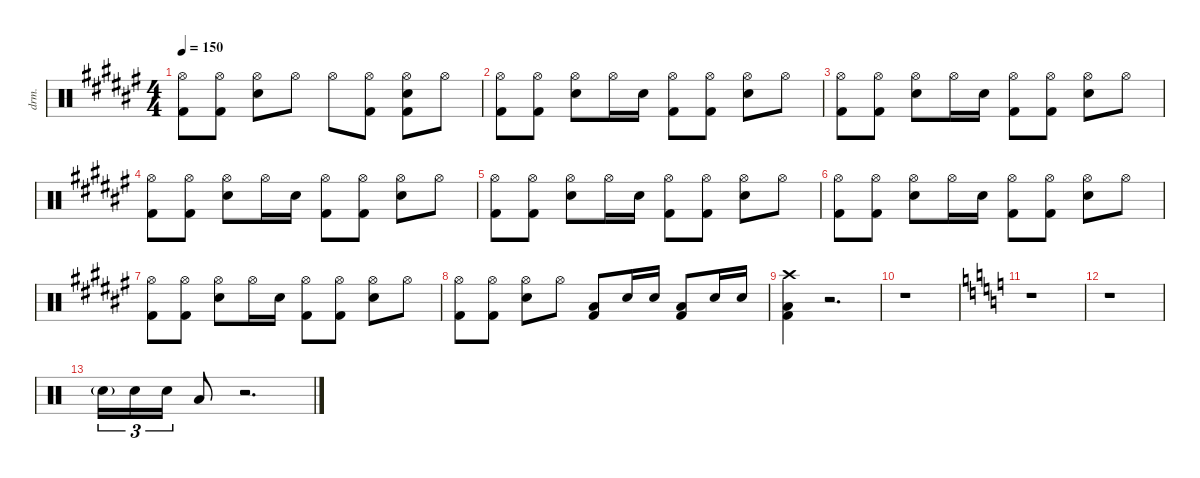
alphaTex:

\defaultSystemsLayout 4
\hideDynamics
\bracketExtendMode nobrackets
\track (" (Drums)" "drm.") {instrument percussion}
\staff {score}
\articulation defaults
\ts (4 4)
\tempo 150
\clef neutral
\ks d#minor
("Hi-Hat (open)"{acc forcenatural} "Kick (hit) 2"{acc forcenatural}).8{dy f} ("Hi-Hat (open)"{acc forcenatural} "Kick (hit) 2"{acc forcenatural}).8 ("Hi-Hat (open)"{acc forcenatural} "Snare (hit) 2"{acc forcenatural}).8 "Hi-Hat (open)"{acc forcenatural}.8 "Hi-Hat (open)"{acc forcenatural}.8 ("Hi-Hat (open)"{acc forcenatural} "Kick (hit) 2"{acc forcenatural}).8 ("Hi-Hat (open)"{acc forcenatural} "Snare (hit) 2"{acc forcenatural} "Kick (hit) 2"{acc forcenatural}).8 "Hi-Hat (open)"{acc forcenatural}.8 |
("Hi-Hat (open)"{acc forcenatural} "Kick (hit) 2"{acc forcenatural}).8 ("Hi-Hat (open)"{acc forcenatural} "Kick (hit) 2"{acc forcenatural}).8 ("Hi-Hat (open)"{acc forcenatural} "Snare (hit) 2"{acc forcenatural}).8 "Hi-Hat (open)"{acc forcenatural}.16 "Snare (hit) 2"{acc forcenatural}.16{dy mf} ("Hi-Hat (open)"{acc forcenatural} "Kick (hit) 2"{acc forcenatural}).8{dy f} ("Hi-Hat (open)"{acc forcenatural} "Kick (hit) 2"{acc forcenatural}).8 ("Hi-Hat (open)"{acc forcenatural} "Snare (hit) 2"{acc forcenatural}).8 "Hi-Hat (open)"{acc forcenatural}.8 |
("Hi-Hat (open)"{acc forcenatural} "Kick (hit) 2"{acc forcenatural}).8 ("Hi-Hat (open)"{acc forcenatural} "Kick (hit) 2"{acc forcenatural}).8 ("Hi-Hat (open)"{acc forcenatural} "Snare (hit) 2"{acc forcenatural}).8 "Hi-Hat (open)"{acc forcenatural}.16 "Snare (hit) 2"{acc forcenatural}.16{dy mf} ("Hi-Hat (open)"{acc forcenatural} "Kick (hit) 2"{acc forcenatural}).8{dy f} ("Hi-Hat (open)"{acc forcenatural} "Kick (hit) 2"{acc forcenatural}).8 ("Hi-Hat (open)"{acc forcenatural} "Snare (hit) 2"{acc forcenatural}).8 "Hi-Hat (open)"{acc forcenatural}.8 |
("Hi-Hat (open)"{acc forcenatural} "Kick (hit) 2"{acc forcenatural}).8 ("Hi-Hat (open)"{acc forcenatural} "Kick (hit) 2"{acc forcenatural}).8 ("Hi-Hat (open)"{acc forcenatural} "Snare (hit) 2"{acc forcenatural}).8 "Hi-Hat (open)"{acc forcenatural}.16 "Snare (hit) 2"{acc forcenatural}.16{dy mf} ("Hi-Hat (open)"{acc forcenatural} "Kick (hit) 2"{acc forcenatural}).8{dy f} ("Hi-Hat (open)"{acc forcenatural} "Kick (hit) 2"{acc forcenatural}).8 ("Hi-Hat (open)"{acc forcenatural} "Snare (hit) 2"{acc forcenatural}).8 "Hi-Hat (open)"{acc forcenatural}.8 |
("Hi-Hat (open)"{acc forcenatural} "Kick (hit) 2"{acc forcenatural}).8 ("Hi-Hat (open)"{acc forcenatural} "Kick (hit) 2"{acc forcenatural}).8 ("Hi-Hat (open)"{acc forcenatural} "Snare (hit) 2"{acc forcenatural}).8 "Hi-Hat (open)"{acc forcenatural}.16 "Snare (hit) 2"{acc forcenatural}.16{dy mf} ("Hi-Hat (open)"{acc forcenatural} "Kick (hit) 2"{acc forcenatural}).8{dy f} ("Hi-Hat (open)"{acc forcenatural} "Kick (hit) 2"{acc forcenatural}).8 ("Hi-Hat (open)"{acc forcenatural} "Snare (hit) 2"{acc forcenatural}).8 "Hi-Hat (open)"{acc forcenatural}.8 |
("Hi-Hat (open)"{acc forcenatural} "Kick (hit) 2"{acc forcenatural}).8 ("Hi-Hat (open)"{acc forcenatural} "Kick (hit) 2"{acc forcenatural}).8 ("Hi-Hat (open)"{acc forcenatural} "Snare (hit) 2"{acc forcenatural}).8 "Hi-Hat (open)"{acc forcenatural}.16 "Snare (hit) 2"{acc forcenatural}.16{dy mf} ("Hi-Hat (open)"{acc forcenatural} "Kick (hit) 2"{acc forcenatural}).8{dy f} ("Hi-Hat (open)"{acc forcenatural} "Kick (hit) 2"{acc forcenatural}).8 ("Hi-Hat (open)"{acc forcenatural} "Snare (hit) 2"{acc forcenatural}).8 "Hi-Hat (open)"{acc forcenatural}.8 |
("Hi-Hat (open)"{acc forcenatural} "Kick (hit) 2"{acc forcenatural}).8 ("Hi-Hat (open)"{acc forcenatural} "Kick (hit) 2"{acc forcenatural}).8 ("Hi-Hat (open)"{acc forcenatural} "Snare (hit) 2"{acc forcenatural}).8 "Hi-Hat (open)"{acc forcenatural}.16 "Snare (hit) 2"{acc forcenatural}.16{dy mf} ("Hi-Hat (open)"{acc forcenatural} "Kick (hit) 2"{acc forcenatural}).8{dy f} ("Hi-Hat (open)"{acc forcenatural} "Kick (hit) 2"{acc forcenatural}).8 ("Hi-Hat (open)"{acc forcenatural} "Snare (hit) 2"{acc forcenatural}).8 "Hi-Hat (open)"{acc forcenatural}.8 |
("Hi-Hat (open)"{acc forcenatural} "Kick (hit) 2"{acc forcenatural}).8 ("Hi-Hat (open)"{acc forcenatural} "Kick (hit) 2"{acc forcenatural}).8 ("Hi-Hat (open)"{acc forcenatural} "Snare (hit) 2"{acc forcenatural}).8 "Hi-Hat (open)"{acc forcenatural}.8 ("Low Tom (hit)"{acc forcenatural} "Kick (hit) 2"{acc forcenatural}).8 "Snare (hit) 2"{acc forcenatural}.16 "Snare (hit) 2"{acc forcenatural}.16 ("Low Tom (hit)"{acc forcenatural} "Kick (hit) 2"{acc forcenatural}).8 "Snare (hit) 2"{acc forcenatural}.16 "Snare (hit) 2"{acc forcenatural}.16 |
("Crash high (hit)"{acc forcenatural} "Low Tom (hit)"{acc forcenatural} "Kick (hit) 2"{acc forcenatural}).4 r.2{d} |
r.1 |
\ks c
r.1 |
r.1 |
"Snare (hit) 2"{g}.16{tu (3 2) dy mf} "Snare (hit) 2".16{tu (3 2) dy f} "Snare (hit) 2".16{tu (3 2)} "Low Tom (hit)".8 r.2{d}
